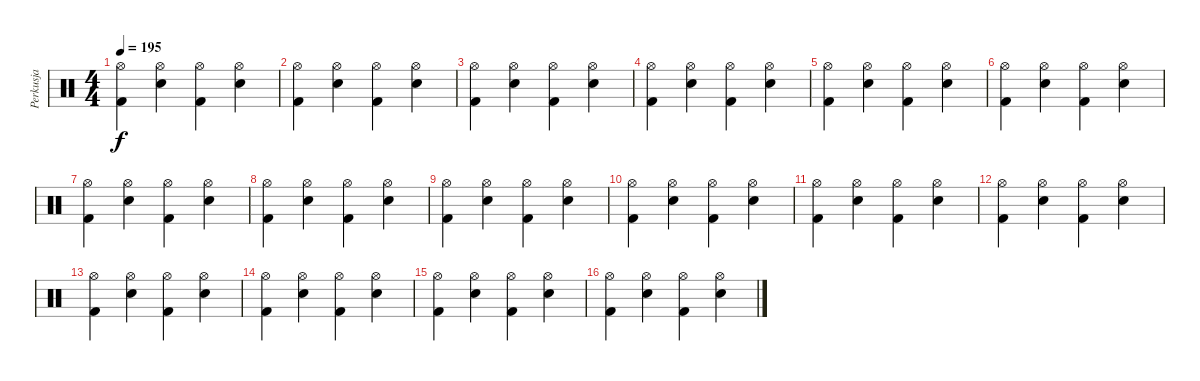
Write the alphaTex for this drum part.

\track ("Perkusja" "Perkusja") {instrument percussion}
\staff {score}
\articulation defaults
\ts (4 4)
\tempo 195
\clef neutral
\ks c
("Hi-Hat (open)" "Kick (hit) 2").4{dy f} ("Hi-Hat (open)" "Snare (hit) 2").4 ("Hi-Hat (open)" "Kick (hit) 2").4 ("Hi-Hat (open)" "Snare (hit) 2").4 |
("Hi-Hat (open)" "Kick (hit) 2").4 ("Hi-Hat (open)" "Snare (hit) 2").4 ("Hi-Hat (open)" "Kick (hit) 2").4 ("Hi-Hat (open)" "Snare (hit) 2").4 |
("Hi-Hat (open)" "Kick (hit) 2").4 ("Hi-Hat (open)" "Snare (hit) 2").4 ("Hi-Hat (open)" "Kick (hit) 2").4 ("Hi-Hat (open)" "Snare (hit) 2").4 |
("Hi-Hat (open)" "Kick (hit) 2").4 ("Hi-Hat (open)" "Snare (hit) 2").4 ("Hi-Hat (open)" "Kick (hit) 2").4 ("Hi-Hat (open)" "Snare (hit) 2").4 |
("Hi-Hat (open)" "Kick (hit) 2").4 ("Hi-Hat (open)" "Snare (hit) 2").4 ("Hi-Hat (open)" "Kick (hit) 2").4 ("Hi-Hat (open)" "Snare (hit) 2").4 |
("Hi-Hat (open)" "Kick (hit) 2").4 ("Hi-Hat (open)" "Snare (hit) 2").4 ("Hi-Hat (open)" "Kick (hit) 2").4 ("Hi-Hat (open)" "Snare (hit) 2").4 |
("Hi-Hat (open)" "Kick (hit) 2").4 ("Hi-Hat (open)" "Snare (hit) 2").4 ("Hi-Hat (open)" "Kick (hit) 2").4 ("Hi-Hat (open)" "Snare (hit) 2").4 |
("Hi-Hat (open)" "Kick (hit) 2").4 ("Hi-Hat (open)" "Snare (hit) 2").4 ("Hi-Hat (open)" "Kick (hit) 2").4 ("Hi-Hat (open)" "Snare (hit) 2").4 |
("Hi-Hat (open)" "Kick (hit) 2").4 ("Hi-Hat (open)" "Snare (hit) 2").4 ("Hi-Hat (open)" "Kick (hit) 2").4 ("Hi-Hat (open)" "Snare (hit) 2").4 |
("Hi-Hat (open)" "Kick (hit) 2").4 ("Hi-Hat (open)" "Snare (hit) 2").4 ("Hi-Hat (open)" "Kick (hit) 2").4 ("Hi-Hat (open)" "Snare (hit) 2").4 |
("Hi-Hat (open)" "Kick (hit) 2").4 ("Hi-Hat (open)" "Snare (hit) 2").4 ("Hi-Hat (open)" "Kick (hit) 2").4 ("Hi-Hat (open)" "Snare (hit) 2").4 |
("Hi-Hat (open)" "Kick (hit) 2").4 ("Hi-Hat (open)" "Snare (hit) 2").4 ("Hi-Hat (open)" "Kick (hit) 2").4 ("Hi-Hat (open)" "Snare (hit) 2").4 |
("Hi-Hat (open)" "Kick (hit) 2").4 ("Hi-Hat (open)" "Snare (hit) 2").4 ("Hi-Hat (open)" "Kick (hit) 2").4 ("Hi-Hat (open)" "Snare (hit) 2").4 |
("Hi-Hat (open)" "Kick (hit) 2").4 ("Hi-Hat (open)" "Snare (hit) 2").4 ("Hi-Hat (open)" "Kick (hit) 2").4 ("Hi-Hat (open)" "Snare (hit) 2").4 |
("Hi-Hat (open)" "Kick (hit) 2").4 ("Hi-Hat (open)" "Snare (hit) 2").4 ("Hi-Hat (open)" "Kick (hit) 2").4 ("Hi-Hat (open)" "Snare (hit) 2").4 |
("Hi-Hat (open)" "Kick (hit) 2").4 ("Hi-Hat (open)" "Snare (hit) 2").4 ("Hi-Hat (open)" "Kick (hit) 2").4 ("Hi-Hat (open)" "Snare (hit) 2").4
